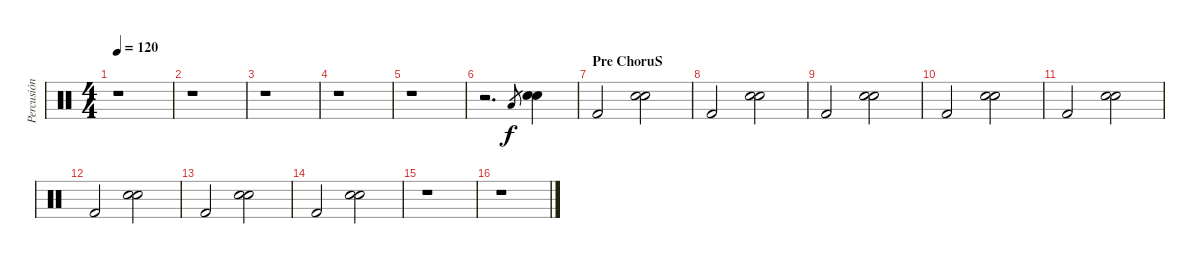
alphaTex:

\track ("Percusión" "Percusión") {instrument percussion}
\staff {score}
\articulation defaults
\ts (4 4)
\tempo 120
\clef neutral
\ks c
r.1{dy f} |
r.1 |
r.1 |
r.1 |
r.1 |
r.2{d} "Low Tom (hit)".8{gr} ("Electric Snare (hit)" "Electric Snare (hit)").4 |
\section ("" "Pre ChoruS")
"Kick (hit) 2".2 ("Electric Snare (hit)" "Electric Snare (hit)").2 |
"Kick (hit) 2".2 ("Electric Snare (hit)" "Electric Snare (hit)").2 |
"Kick (hit) 2".2 ("Electric Snare (hit)" "Electric Snare (hit)").2 |
"Kick (hit) 2".2 ("Electric Snare (hit)" "Electric Snare (hit)").2 |
"Kick (hit) 2".2 ("Electric Snare (hit)" "Electric Snare (hit)").2 |
"Kick (hit) 2".2 ("Electric Snare (hit)" "Electric Snare (hit)").2 |
"Kick (hit) 2".2 ("Electric Snare (hit)" "Electric Snare (hit)").2 |
"Kick (hit) 2".2 ("Electric Snare (hit)" "Electric Snare (hit)").2 |
r.1 |
r.1
